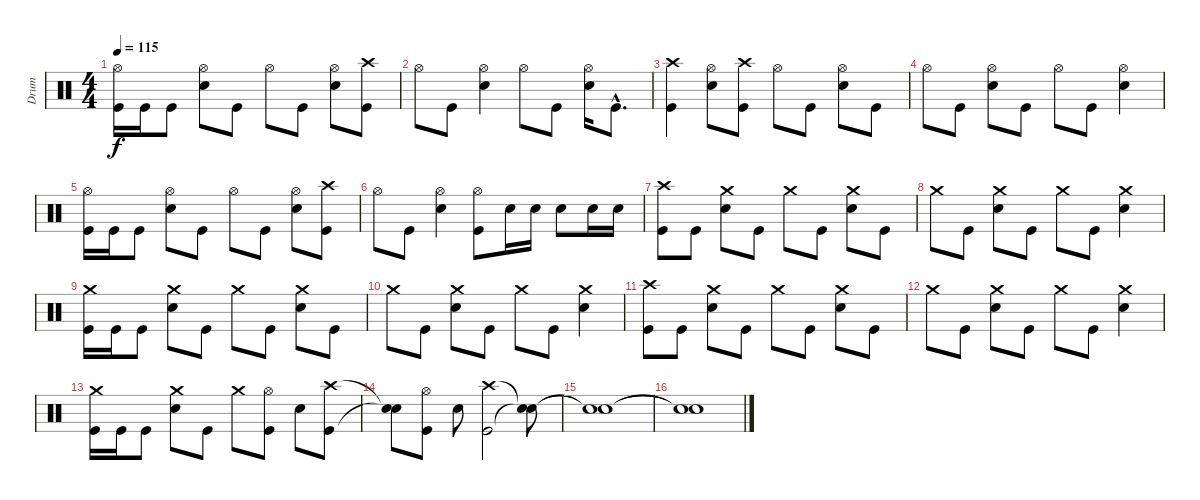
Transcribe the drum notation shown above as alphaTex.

\track ("Drum" "Drum") {instrument percussion}
\staff {score}
\articulation defaults
\ts (4 4)
\tempo 115
\clef neutral
\ks c
("Kick (hit)" "Hi-Hat (open)").16{dy f} "Kick (hit)".16 "Kick (hit)".8 ("Hi-Hat (open)" "Snare (hit) 2").8 "Kick (hit)".8 "Hi-Hat (open)".8 "Kick (hit)".8 ("Hi-Hat (open)" "Snare (hit) 2").8 ("Kick (hit)" "Crash high (hit)").8 |
"Hi-Hat (open)".8 "Kick (hit)".8 ("Hi-Hat (open)" "Snare (hit) 2").4 "Hi-Hat (open)".8 "Kick (hit)".8 ("Hi-Hat (open)" "Snare (hit) 2").16 "Kick (hit)"{hac}.8{d} |
("Kick (hit)" "Crash high (hit)").4 ("Hi-Hat (open)" "Snare (hit) 2").8 ("Kick (hit)" "Crash high (hit)").8 "Hi-Hat (open)".8 "Kick (hit)".8 ("Hi-Hat (open)" "Snare (hit) 2").8 "Kick (hit)".8 |
"Hi-Hat (open)".8 "Kick (hit)".8 ("Hi-Hat (open)" "Snare (hit) 2").8 "Kick (hit)".8 "Hi-Hat (open)".8 "Kick (hit)".8 ("Hi-Hat (open)" "Snare (hit) 2").4 |
("Kick (hit)" "Hi-Hat (open)").16 "Kick (hit)".16 "Kick (hit)".8 ("Hi-Hat (open)" "Snare (hit) 2").8 "Kick (hit)".8 "Hi-Hat (open)".8 "Kick (hit)".8 ("Hi-Hat (open)" "Snare (hit) 2").8 ("Kick (hit)" "Crash high (hit)").8 |
"Hi-Hat (open)".8 "Kick (hit)".8 ("Hi-Hat (open)" "Snare (hit) 2").4 ("Kick (hit)" "Hi-Hat (open)").8 "Snare (hit) 2".16 "Snare (hit) 2".16 "Snare (hit) 2".8 "Snare (hit) 2".16 "Snare (hit) 2".16 |
("Kick (hit)" "Crash high (hit)").8 "Kick (hit)".8 ("Crash medium (hit)" "Snare (hit) 2").8 "Kick (hit)".8 "Crash medium (hit)".8 "Kick (hit)".8 ("Crash medium (hit)" "Snare (hit) 2").8 "Kick (hit)".8 |
"Crash medium (hit)".8 "Kick (hit)".8 ("Crash medium (hit)" "Snare (hit) 2").8 "Kick (hit)".8 "Crash medium (hit)".8 "Kick (hit)".8 ("Crash medium (hit)" "Snare (hit) 2").4 |
("Kick (hit)" "Crash medium (hit)").16 "Kick (hit)".16 "Kick (hit)".8 ("Crash medium (hit)" "Snare (hit) 2").8 "Kick (hit)".8 "Crash medium (hit)".8 "Kick (hit)".8 ("Crash medium (hit)" "Snare (hit) 2").8 "Kick (hit)".8 |
"Crash medium (hit)".8 "Kick (hit)".8 ("Crash medium (hit)" "Snare (hit) 2").8 "Kick (hit)".8 "Crash medium (hit)".8 "Kick (hit)".8 ("Crash medium (hit)" "Snare (hit) 2").4 |
("Kick (hit)" "Crash high (hit)").8 "Kick (hit)".8 ("Crash medium (hit)" "Snare (hit) 2").8 "Kick (hit)".8 "Crash medium (hit)".8 "Kick (hit)".8 ("Crash medium (hit)" "Snare (hit) 2").8 "Kick (hit)".8 |
"Crash medium (hit)".8 "Kick (hit)".8 ("Crash medium (hit)" "Snare (hit) 2").8 "Kick (hit)".8 "Crash medium (hit)".8 "Kick (hit)".8 ("Crash medium (hit)" "Snare (hit) 2").4 |
("Kick (hit)" "Crash medium (hit)").16 "Kick (hit)".16 "Kick (hit)".8 ("Crash medium (hit)" "Snare (hit) 2").8 "Kick (hit)".8 "Crash medium (hit)".8 ("Kick (hit)" "Hi-Hat (open)").8 "Snare (hit) 2".8 ("Kick (hit)" "Crash high (hit)").8 |
("Snare (hit)"{t} "Snare (hit)"{t}).8 ("Kick (hit)" "Hi-Hat (open)").8 "Snare (hit) 2".8 ("Kick (hit)" "Crash high (hit)").2 ("Snare (hit)"{t} "Snare (hit)"{t}).8 |
("Snare (hit)"{t} "Snare (hit)"{t}).1 |
("Snare (hit)"{t} "Snare (hit)"{t}).1
